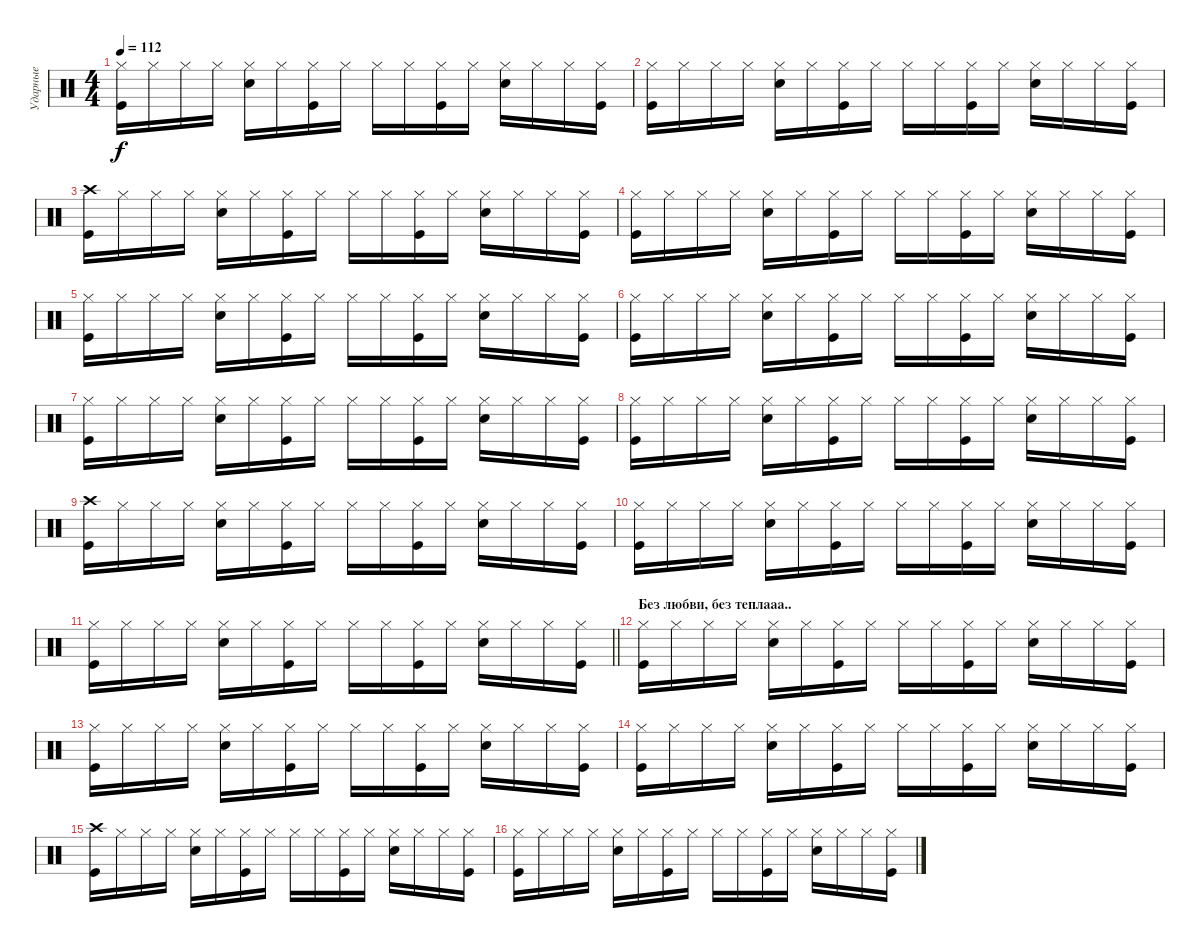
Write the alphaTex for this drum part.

\track ("Ударные" "Ударные") {instrument percussion}
\staff {score}
\articulation defaults
\ts (4 4)
\tempo 112
\clef neutral
\ks c
("Hi-Hat (closed)" "Kick (hit)").16{dy f} "Hi-Hat (closed)".16 "Hi-Hat (closed)".16 "Hi-Hat (closed)".16 ("Hi-Hat (closed)" "Electric Snare (hit)").16 "Hi-Hat (closed)".16 ("Hi-Hat (closed)" "Kick (hit)").16 "Hi-Hat (closed)".16 "Hi-Hat (closed)".16 "Hi-Hat (closed)".16 ("Hi-Hat (closed)" "Kick (hit)").16 "Hi-Hat (closed)".16 ("Hi-Hat (closed)" "Electric Snare (hit)").16 "Hi-Hat (closed)".16 "Hi-Hat (closed)".16 ("Hi-Hat (closed)" "Kick (hit)").16 |
("Hi-Hat (closed)" "Kick (hit)").16 "Hi-Hat (closed)".16 "Hi-Hat (closed)".16 "Hi-Hat (closed)".16 ("Hi-Hat (closed)" "Electric Snare (hit)").16 "Hi-Hat (closed)".16 ("Hi-Hat (closed)" "Kick (hit)").16 "Hi-Hat (closed)".16 "Hi-Hat (closed)".16 "Hi-Hat (closed)".16 ("Hi-Hat (closed)" "Kick (hit)").16 "Hi-Hat (closed)".16 ("Hi-Hat (closed)" "Electric Snare (hit)").16 "Hi-Hat (closed)".16 "Hi-Hat (closed)".16 ("Hi-Hat (closed)" "Kick (hit)").16 |
("Crash high (hit)" "Kick (hit)").16 "Hi-Hat (closed)".16 "Hi-Hat (closed)".16 "Hi-Hat (closed)".16 ("Hi-Hat (closed)" "Electric Snare (hit)").16 "Hi-Hat (closed)".16 ("Hi-Hat (closed)" "Kick (hit)").16 "Hi-Hat (closed)".16 "Hi-Hat (closed)".16 "Hi-Hat (closed)".16 ("Hi-Hat (closed)" "Kick (hit)").16 "Hi-Hat (closed)".16 ("Hi-Hat (closed)" "Electric Snare (hit)").16 "Hi-Hat (closed)".16 "Hi-Hat (closed)".16 ("Hi-Hat (closed)" "Kick (hit)").16 |
("Hi-Hat (closed)" "Kick (hit)").16 "Hi-Hat (closed)".16 "Hi-Hat (closed)".16 "Hi-Hat (closed)".16 ("Hi-Hat (closed)" "Electric Snare (hit)").16 "Hi-Hat (closed)".16 ("Hi-Hat (closed)" "Kick (hit)").16 "Hi-Hat (closed)".16 "Hi-Hat (closed)".16 "Hi-Hat (closed)".16 ("Hi-Hat (closed)" "Kick (hit)").16 "Hi-Hat (closed)".16 ("Hi-Hat (closed)" "Electric Snare (hit)").16 "Hi-Hat (closed)".16 "Hi-Hat (closed)".16 ("Hi-Hat (closed)" "Kick (hit)").16 |
("Hi-Hat (closed)" "Kick (hit)").16 "Hi-Hat (closed)".16 "Hi-Hat (closed)".16 "Hi-Hat (closed)".16 ("Hi-Hat (closed)" "Electric Snare (hit)").16 "Hi-Hat (closed)".16 ("Hi-Hat (closed)" "Kick (hit)").16 "Hi-Hat (closed)".16 "Hi-Hat (closed)".16 "Hi-Hat (closed)".16 ("Hi-Hat (closed)" "Kick (hit)").16 "Hi-Hat (closed)".16 ("Hi-Hat (closed)" "Electric Snare (hit)").16 "Hi-Hat (closed)".16 "Hi-Hat (closed)".16 ("Hi-Hat (closed)" "Kick (hit)").16 |
("Hi-Hat (closed)" "Kick (hit)").16 "Hi-Hat (closed)".16 "Hi-Hat (closed)".16 "Hi-Hat (closed)".16 ("Hi-Hat (closed)" "Electric Snare (hit)").16 "Hi-Hat (closed)".16 ("Hi-Hat (closed)" "Kick (hit)").16 "Hi-Hat (closed)".16 "Hi-Hat (closed)".16 "Hi-Hat (closed)".16 ("Hi-Hat (closed)" "Kick (hit)").16 "Hi-Hat (closed)".16 ("Hi-Hat (closed)" "Electric Snare (hit)").16 "Hi-Hat (closed)".16 "Hi-Hat (closed)".16 ("Hi-Hat (closed)" "Kick (hit)").16 |
("Hi-Hat (closed)" "Kick (hit)").16 "Hi-Hat (closed)".16 "Hi-Hat (closed)".16 "Hi-Hat (closed)".16 ("Hi-Hat (closed)" "Electric Snare (hit)").16 "Hi-Hat (closed)".16 ("Hi-Hat (closed)" "Kick (hit)").16 "Hi-Hat (closed)".16 "Hi-Hat (closed)".16 "Hi-Hat (closed)".16 ("Hi-Hat (closed)" "Kick (hit)").16 "Hi-Hat (closed)".16 ("Hi-Hat (closed)" "Electric Snare (hit)").16 "Hi-Hat (closed)".16 "Hi-Hat (closed)".16 ("Hi-Hat (closed)" "Kick (hit)").16 |
("Hi-Hat (closed)" "Kick (hit)").16 "Hi-Hat (closed)".16 "Hi-Hat (closed)".16 "Hi-Hat (closed)".16 ("Hi-Hat (closed)" "Electric Snare (hit)").16 "Hi-Hat (closed)".16 ("Hi-Hat (closed)" "Kick (hit)").16 "Hi-Hat (closed)".16 "Hi-Hat (closed)".16 "Hi-Hat (closed)".16 ("Hi-Hat (closed)" "Kick (hit)").16 "Hi-Hat (closed)".16 ("Hi-Hat (closed)" "Electric Snare (hit)").16 "Hi-Hat (closed)".16 "Hi-Hat (closed)".16 ("Hi-Hat (closed)" "Kick (hit)").16 |
("Crash high (hit)" "Kick (hit)").16 "Hi-Hat (closed)".16 "Hi-Hat (closed)".16 "Hi-Hat (closed)".16 ("Hi-Hat (closed)" "Electric Snare (hit)").16 "Hi-Hat (closed)".16 ("Hi-Hat (closed)" "Kick (hit)").16 "Hi-Hat (closed)".16 "Hi-Hat (closed)".16 "Hi-Hat (closed)".16 ("Hi-Hat (closed)" "Kick (hit)").16 "Hi-Hat (closed)".16 ("Hi-Hat (closed)" "Electric Snare (hit)").16 "Hi-Hat (closed)".16 "Hi-Hat (closed)".16 ("Hi-Hat (closed)" "Kick (hit)").16 |
("Hi-Hat (closed)" "Kick (hit)").16 "Hi-Hat (closed)".16 "Hi-Hat (closed)".16 "Hi-Hat (closed)".16 ("Hi-Hat (closed)" "Electric Snare (hit)").16 "Hi-Hat (closed)".16 ("Hi-Hat (closed)" "Kick (hit)").16 "Hi-Hat (closed)".16 "Hi-Hat (closed)".16 "Hi-Hat (closed)".16 ("Hi-Hat (closed)" "Kick (hit)").16 "Hi-Hat (closed)".16 ("Hi-Hat (closed)" "Electric Snare (hit)").16 "Hi-Hat (closed)".16 "Hi-Hat (closed)".16 ("Hi-Hat (closed)" "Kick (hit)").16 |
\barLineRight lightlight
("Hi-Hat (closed)" "Kick (hit)").16 "Hi-Hat (closed)".16 "Hi-Hat (closed)".16 "Hi-Hat (closed)".16 ("Hi-Hat (closed)" "Electric Snare (hit)").16 "Hi-Hat (closed)".16 ("Hi-Hat (closed)" "Kick (hit)").16 "Hi-Hat (closed)".16 "Hi-Hat (closed)".16 "Hi-Hat (closed)".16 ("Hi-Hat (closed)" "Kick (hit)").16 "Hi-Hat (closed)".16 ("Hi-Hat (closed)" "Electric Snare (hit)").16 "Hi-Hat (closed)".16 "Hi-Hat (closed)".16 ("Hi-Hat (closed)" "Kick (hit)").16 |
\section ("" "Без любви, без теплааа..")
("Hi-Hat (closed)" "Kick (hit)").16 "Hi-Hat (closed)".16 "Hi-Hat (closed)".16 "Hi-Hat (closed)".16 ("Hi-Hat (closed)" "Electric Snare (hit)").16 "Hi-Hat (closed)".16 ("Hi-Hat (closed)" "Kick (hit)").16 "Hi-Hat (closed)".16 "Hi-Hat (closed)".16 "Hi-Hat (closed)".16 ("Hi-Hat (closed)" "Kick (hit)").16 "Hi-Hat (closed)".16 ("Hi-Hat (closed)" "Electric Snare (hit)").16 "Hi-Hat (closed)".16 "Hi-Hat (closed)".16 ("Hi-Hat (closed)" "Kick (hit)").16 |
("Hi-Hat (closed)" "Kick (hit)").16 "Hi-Hat (closed)".16 "Hi-Hat (closed)".16 "Hi-Hat (closed)".16 ("Hi-Hat (closed)" "Electric Snare (hit)").16 "Hi-Hat (closed)".16 ("Hi-Hat (closed)" "Kick (hit)").16 "Hi-Hat (closed)".16 "Hi-Hat (closed)".16 "Hi-Hat (closed)".16 ("Hi-Hat (closed)" "Kick (hit)").16 "Hi-Hat (closed)".16 ("Hi-Hat (closed)" "Electric Snare (hit)").16 "Hi-Hat (closed)".16 "Hi-Hat (closed)".16 ("Hi-Hat (closed)" "Kick (hit)").16 |
("Hi-Hat (closed)" "Kick (hit)").16 "Hi-Hat (closed)".16 "Hi-Hat (closed)".16 "Hi-Hat (closed)".16 ("Hi-Hat (closed)" "Electric Snare (hit)").16 "Hi-Hat (closed)".16 ("Hi-Hat (closed)" "Kick (hit)").16 "Hi-Hat (closed)".16 "Hi-Hat (closed)".16 "Hi-Hat (closed)".16 ("Hi-Hat (closed)" "Kick (hit)").16 "Hi-Hat (closed)".16 ("Hi-Hat (closed)" "Electric Snare (hit)").16 "Hi-Hat (closed)".16 "Hi-Hat (closed)".16 ("Hi-Hat (closed)" "Kick (hit)").16 |
("Crash high (hit)" "Kick (hit)").16 "Hi-Hat (closed)".16 "Hi-Hat (closed)".16 "Hi-Hat (closed)".16 ("Hi-Hat (closed)" "Electric Snare (hit)").16 "Hi-Hat (closed)".16 ("Hi-Hat (closed)" "Kick (hit)").16 "Hi-Hat (closed)".16 "Hi-Hat (closed)".16 "Hi-Hat (closed)".16 ("Hi-Hat (closed)" "Kick (hit)").16 "Hi-Hat (closed)".16 ("Hi-Hat (closed)" "Electric Snare (hit)").16 "Hi-Hat (closed)".16 "Hi-Hat (closed)".16 ("Hi-Hat (closed)" "Kick (hit)").16 |
("Hi-Hat (closed)" "Kick (hit)").16 "Hi-Hat (closed)".16 "Hi-Hat (closed)".16 "Hi-Hat (closed)".16 ("Hi-Hat (closed)" "Electric Snare (hit)").16 "Hi-Hat (closed)".16 ("Hi-Hat (closed)" "Kick (hit)").16 "Hi-Hat (closed)".16 "Hi-Hat (closed)".16 "Hi-Hat (closed)".16 ("Hi-Hat (closed)" "Kick (hit)").16 "Hi-Hat (closed)".16 ("Hi-Hat (closed)" "Electric Snare (hit)").16 "Hi-Hat (closed)".16 "Hi-Hat (closed)".16 ("Hi-Hat (closed)" "Kick (hit)").16
